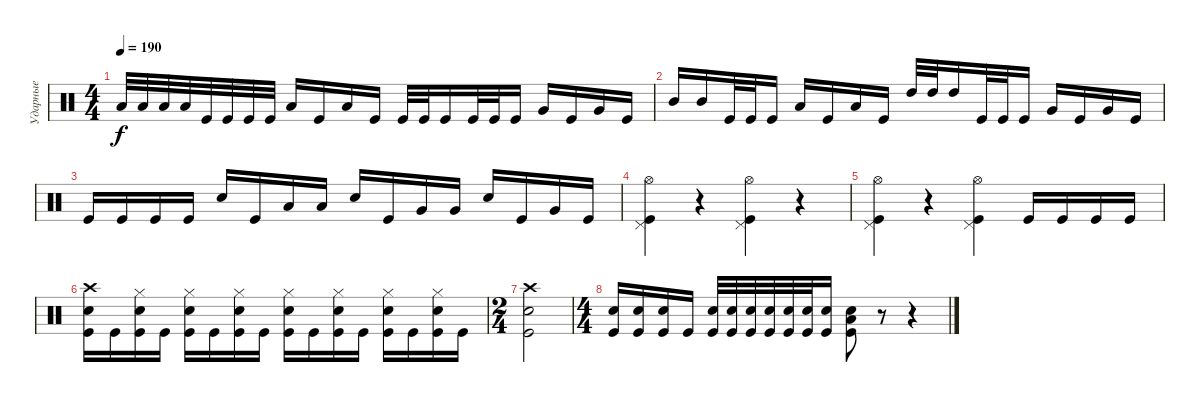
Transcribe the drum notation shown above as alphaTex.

\track ("Ударные" "Ударные") {instrument percussion}
\staff {score}
\articulation defaults
\ts (4 4)
\tempo 190
\clef neutral
\ks c "Low Tom (hit)".32{dy f} "Low Tom (hit)".32 "Low Tom (hit)".32 "Low Tom (hit)".32 "Kick (hit)".32 "Kick (hit)".32 "Kick (hit)".32 "Kick (hit)".32 "Low Tom (hit)".16 "Kick (hit)".16 "Low Tom (hit)".16 "Kick (hit)".16 "Kick (hit)".32 "Kick (hit)".32 "Kick (hit)".16 "Kick (hit)".32 "Kick (hit)".32 "Kick (hit)".16 "Very Low Tom (hit)".16 "Kick (hit)".16 "Very Low Tom (hit)".16 "Kick (hit)".16
|
"Mid Tom (hit)".16 "Mid Tom (hit)".16 "Kick (hit)".32 "Kick (hit)".32 "Kick (hit)".16 "Low Tom (hit)".16 "Kick (hit)".16 "Low Tom (hit)".16 "Kick (hit)".16 "High Tom (hit)".32 "High Tom (hit)".32 "High Tom (hit)".16 "Kick (hit)".32 "Kick (hit)".32 "Kick (hit)".16 "Very Low Tom (hit)".16 "Kick (hit)".16 "Very Low Tom (hit)".16 "Kick (hit)".16 |
"Kick (hit)".16 "Kick (hit)".16 "Kick (hit)".16 "Kick (hit)".16 "Electric Snare (hit)".16 "Kick (hit)".16 "Low Tom (hit)".16 "Low Tom (hit)".16 "Electric Snare (hit)".16 "Kick (hit)".16 "Very Low Tom (hit)".16 "Very Low Tom (hit)".16 "Electric Snare (hit)".16 "Kick (hit)".16 "Very Low Tom (hit)".16 "Kick (hit)".16 |
("Pedal Hi-Hat (hit)" "Hi-Hat (open)" "Kick (hit)").4 r.4 ("Pedal Hi-Hat (hit)" "Hi-Hat (open)" "Kick (hit)").4 r.4 |
("Pedal Hi-Hat (hit)" "Hi-Hat (open)" "Kick (hit)").4 r.4 ("Pedal Hi-Hat (hit)" "Hi-Hat (open)" "Kick (hit)").4 "Kick (hit)".16 "Kick (hit)".16 "Kick (hit)".16 "Kick (hit)".16 |
("Crash high (hit)" "Electric Snare (hit)" "Kick (hit)").16 "Kick (hit)".16 ("Hi-Hat (closed)" "Electric Snare (hit)" "Kick (hit)").16 "Kick (hit)".16 ("Hi-Hat (closed)" "Electric Snare (hit)" "Kick (hit)").16 "Kick (hit)".16 ("Hi-Hat (closed)" "Electric Snare (hit)" "Kick (hit)").16 "Kick (hit)".16 ("Hi-Hat (closed)" "Electric Snare (hit)" "Kick (hit)").16 "Kick (hit)".16 ("Hi-Hat (closed)" "Electric Snare (hit)" "Kick (hit)").16 "Kick (hit)".16 ("Hi-Hat (closed)" "Electric Snare (hit)" "Kick (hit)").16 "Kick (hit)".16 ("Hi-Hat (closed)" "Electric Snare (hit)" "Kick (hit)").16 "Kick (hit)".16 |
\ts (2 4)
("Crash high (hit)" "Electric Snare (hit)" "Kick (hit)").2 |
\ts (4 4)
("Electric Snare (hit)" "Kick (hit)").16 ("Electric Snare (hit)" "Kick (hit)").16 ("Electric Snare (hit)" "Kick (hit)").16 "Kick (hit)".16 ("Electric Snare (hit)" "Kick (hit)").32 ("Electric Snare (hit)" "Kick (hit)").32 ("Electric Snare (hit)" "Kick (hit)").32 ("Electric Snare (hit)" "Kick (hit)").32 ("Electric Snare (hit)" "Kick (hit)").32 ("Electric Snare (hit)" "Kick (hit)").32 ("Electric Snare (hit)" "Kick (hit)").16 ("Electric Snare (hit)" "Low Tom (hit)" "Kick (hit)").8 r.8 r.4
